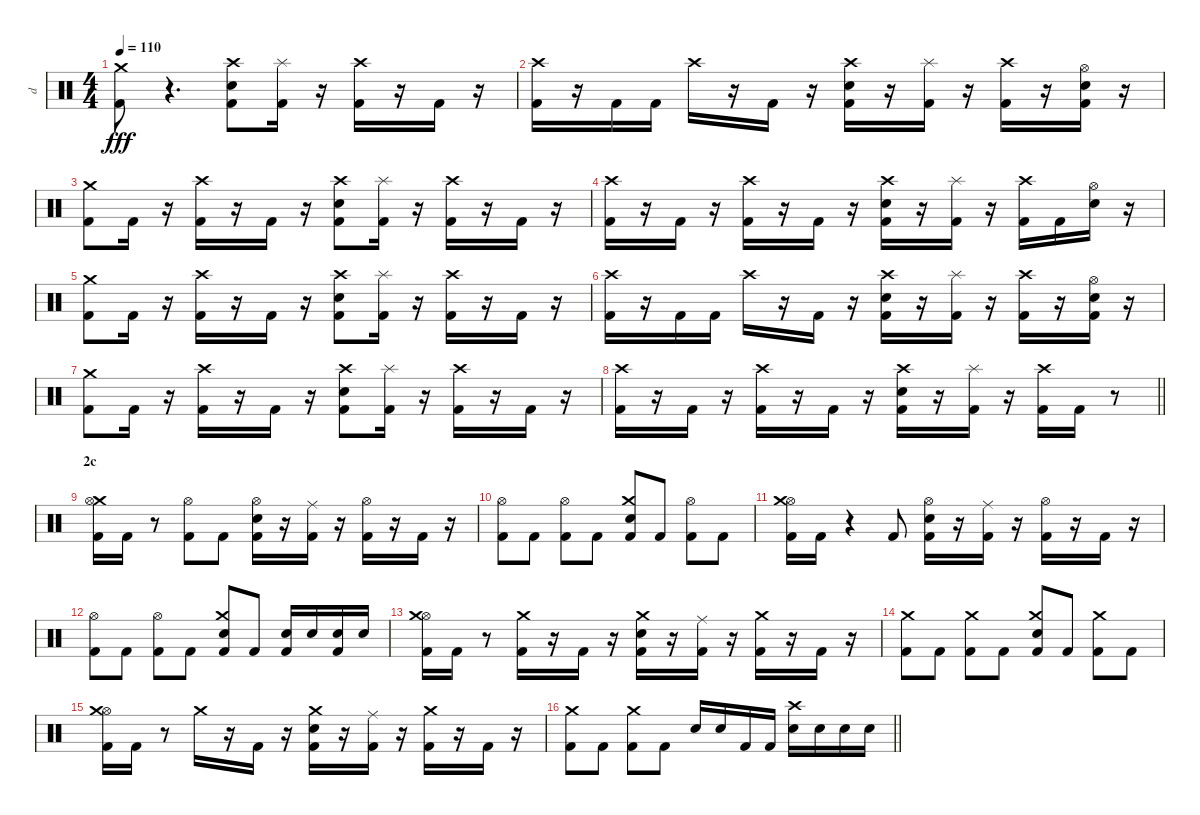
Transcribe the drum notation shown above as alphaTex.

\track ("d" "d") {instrument percussion}
\staff {score}
\articulation defaults
\ts (4 4)
\tempo 110
\clef neutral
\ks c
("Kick (hit) 2" "Crash medium (hit)").8{dy fff} r.4{d} ("Electric Snare (hit)" "Kick (hit) 2" "Crash high (hit)").8 ("Splash (hit)" "Kick (hit) 2").16 r.16 ("Kick (hit) 2" "Crash high (hit)").16 r.16 "Kick (hit) 2".16 r.16 |
("Kick (hit) 2" "Crash high (hit)").16 r.16 "Kick (hit) 2".16 "Kick (hit) 2".16 "Crash high (hit)".16 r.16 "Kick (hit) 2".16 r.16 ("Crash high (hit)" "Kick (hit) 2" "Electric Snare (hit)").16 r.16 ("Kick (hit) 2" "Splash (hit)").16 r.16 ("Kick (hit) 2" "Crash high (hit)").16 r.16 ("Electric Snare (hit)" "Kick (hit) 2" "Hi-Hat (open)").16 r.16 |
("Crash medium (hit)" "Kick (hit) 2").8 "Kick (hit) 2".16 r.16 ("Crash high (hit)" "Kick (hit) 2").16 r.16 "Kick (hit) 2".16 r.16 ("Electric Snare (hit)" "Kick (hit) 2" "Crash high (hit)").8 ("Splash (hit)" "Kick (hit) 2").16 r.16 ("Kick (hit) 2" "Crash high (hit)").16 r.16 "Kick (hit) 2".16 r.16 |
("Kick (hit) 2" "Crash high (hit)").16 r.16 "Kick (hit) 2".16 r.16 ("Crash high (hit)" "Kick (hit) 2").16 r.16 "Kick (hit) 2".16 r.16 ("Kick (hit) 2" "Electric Snare (hit)" "Crash high (hit)").16 r.16 ("Kick (hit) 2" "Splash (hit)").16 r.16 ("Crash high (hit)" "Kick (hit) 2").16 "Kick (hit) 2".16 ("Hi-Hat (open)" "Electric Snare (hit)").16 r.16 |
("Kick (hit) 2" "Crash medium (hit)").8 "Kick (hit) 2".16 r.16 ("Kick (hit) 2" "Crash high (hit)").16 r.16 "Kick (hit) 2".16 r.16 ("Crash high (hit)" "Kick (hit) 2" "Electric Snare (hit)").8 ("Kick (hit) 2" "Splash (hit)").16 r.16 ("Kick (hit) 2" "Crash high (hit)").16 r.16 "Kick (hit) 2".16 r.16 |
("Kick (hit) 2" "Crash high (hit)").16 r.16 "Kick (hit) 2".16 "Kick (hit) 2".16 "Crash high (hit)".16 r.16 "Kick (hit) 2".16 r.16 ("Kick (hit) 2" "Electric Snare (hit)" "Crash high (hit)").16 r.16 ("Kick (hit) 2" "Splash (hit)").16 r.16 ("Crash high (hit)" "Kick (hit) 2").16 r.16 ("Hi-Hat (open)" "Kick (hit) 2" "Electric Snare (hit)").16 r.16 |
("Kick (hit) 2" "Crash medium (hit)").8 "Kick (hit) 2".16 r.16 ("Kick (hit) 2" "Crash high (hit)").16 r.16 "Kick (hit) 2".16 r.16 ("Crash high (hit)" "Kick (hit) 2" "Electric Snare (hit)").8 ("Kick (hit) 2" "Splash (hit)").16 r.16 ("Crash high (hit)" "Kick (hit) 2").16 r.16 "Kick (hit) 2".16 r.16 |
\barLineRight lightlight
("Crash high (hit)" "Kick (hit) 2").16 r.16 "Kick (hit) 2".16 r.16 ("Crash high (hit)" "Kick (hit) 2").16 r.16 "Kick (hit) 2".16 r.16 ("Electric Snare (hit)" "Kick (hit) 2" "Crash high (hit)").16 r.16 ("Splash (hit)" "Kick (hit) 2").16 r.16 ("Kick (hit) 2" "Crash high (hit)").16 "Kick (hit) 2".16 r.8 |
\section ("" "2c")
("Crash medium (hit)" "Kick (hit) 2" "Hi-Hat (open)").16 "Kick (hit) 2".16 r.8 ("Hi-Hat (open)" "Kick (hit) 2").8 "Kick (hit) 2".8 ("Electric Snare (hit)" "Kick (hit) 2" "Hi-Hat (open)").16 r.16 ("Ride (middle)" "Kick (hit) 2").16 r.16 ("Kick (hit) 2" "Hi-Hat (open)").16 r.16 "Kick (hit) 2".16 r.16 |
("Kick (hit) 2" "Hi-Hat (open)").8 "Kick (hit) 2".8 ("Kick (hit) 2" "Hi-Hat (open)").8 "Kick (hit) 2".8 ("Crash medium (hit)" "Kick (hit) 2" "Electric Snare (hit)").8 "Kick (hit) 2".8 ("Hi-Hat (open)" "Kick (hit) 2").8 "Kick (hit) 2".8 |
("Hi-Hat (open)" "Crash medium (hit)" "Kick (hit) 2").16 "Kick (hit) 2".16 r.4 "Kick (hit) 2".8 ("Kick (hit) 2" "Electric Snare (hit)" "Hi-Hat (open)").16 r.16 ("Kick (hit) 2" "Ride (middle)").16 r.16 ("Hi-Hat (open)" "Kick (hit) 2").16 r.16 "Kick (hit) 2".16 r.16 |
("Hi-Hat (open)" "Kick (hit) 2").8 "Kick (hit) 2".8 ("Hi-Hat (open)" "Kick (hit) 2").8 "Kick (hit) 2".8 ("Electric Snare (hit)" "Kick (hit) 2" "Crash medium (hit)").8 "Kick (hit) 2".8 ("Kick (hit) 2" "Electric Snare (hit)").16 "Electric Snare (hit)".16 ("Kick (hit) 2" "Electric Snare (hit)").16 "Electric Snare (hit)".16 |
("Kick (hit) 2" "Hi-Hat (open)" "Crash medium (hit)").16 "Kick (hit) 2".16 r.8 ("Kick (hit) 2" "Crash medium (hit)").16 r.16 "Kick (hit) 2".16 r.16 ("Crash medium (hit)" "Kick (hit) 2" "Electric Snare (hit)").16 r.16 ("Kick (hit) 2" "Ride (middle)").16 r.16 ("Kick (hit) 2" "Crash medium (hit)").16 r.16 "Kick (hit) 2".16 r.16 |
("Kick (hit) 2" "Crash medium (hit)").8 "Kick (hit) 2".8 ("Kick (hit) 2" "Crash medium (hit)").8 "Kick (hit) 2".8 ("Electric Snare (hit)" "Kick (hit) 2" "Crash medium (hit)").8 "Kick (hit) 2".8 ("Kick (hit) 2" "Crash medium (hit)").8 "Kick (hit) 2".8 |
("Kick (hit) 2" "Hi-Hat (open)" "Crash medium (hit)").16 "Kick (hit) 2".16 r.8 "Crash medium (hit)".16 r.16 "Kick (hit) 2".16 r.16 ("Kick (hit) 2" "Electric Snare (hit)" "Crash medium (hit)").16 r.16 ("Kick (hit) 2" "Ride (middle)").16 r.16 ("Crash medium (hit)" "Kick (hit) 2").16 r.16 "Kick (hit) 2".16 r.16 |
\barLineRight lightlight
("Crash medium (hit)" "Kick (hit) 2").8 "Kick (hit) 2".8 ("Crash medium (hit)" "Kick (hit) 2").8 "Kick (hit) 2".8 "Electric Snare (hit)".16 "Electric Snare (hit)".16 "Kick (hit) 2".16 "Kick (hit) 2".16 ("Electric Snare (hit)" "Crash high (hit)").16 "Electric Snare (hit)".16 "Electric Snare (hit)".16 "Electric Snare (hit)".16
